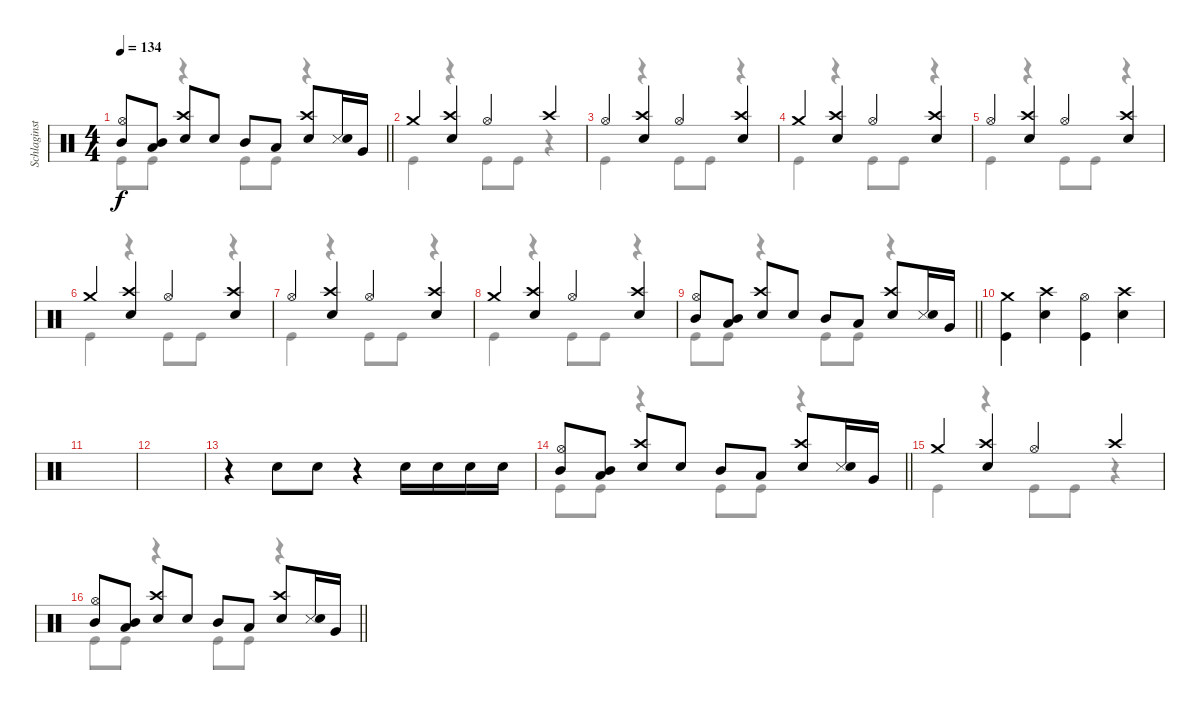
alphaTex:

\track ("Schlaginstrumente - Auswahl" "Schlaginst") {instrument percussion}
\staff {score}
\articulation defaults
\voice
\ts (4 4)
\tempo 134
\clef neutral
\barLineRight lightlight
\ks c
("Mid Tom (hit)" "Hi-Hat (open)").8{dy f} ("Low Tom (hit)" "Mid Tom (hit)").8 ("Snare (hit) 2" "Crash high (hit)").8 "Snare (hit) 2".8 "Mid Tom (hit)".8 "Low Tom (hit)".8 ("Snare (hit) 2" "Crash high (hit)").8 ("Snare (side stick) 3" "Snare (hit) 2").16 "Very Low Tom (hit)".16 |
"Crash medium (hit)".4 ("Crash high (hit)" "Snare (hit) 2").4 "Hi-Hat (open)".4 "Crash high (hit)".4 |
"Hi-Hat (open)".4 ("Crash high (hit)" "Snare (hit) 2").4 "Hi-Hat (open)".4 ("Snare (hit) 2" "Crash high (hit)").4 |
"Crash medium (hit)".4 ("Crash high (hit)" "Snare (hit) 2").4 "Hi-Hat (open)".4 ("Crash high (hit)" "Snare (hit) 2").4 |
"Hi-Hat (open)".4 ("Crash high (hit)" "Snare (hit) 2").4 "Hi-Hat (open)".4 ("Snare (hit) 2" "Crash high (hit)").4 |
"Crash medium (hit)".4 ("Crash high (hit)" "Snare (hit) 2").4 "Hi-Hat (open)".4 ("Crash high (hit)" "Snare (hit) 2").4 |
"Hi-Hat (open)".4 ("Crash high (hit)" "Snare (hit) 2").4 "Hi-Hat (open)".4 ("Snare (hit) 2" "Crash high (hit)").4 |
"Crash medium (hit)".4 ("Crash high (hit)" "Snare (hit) 2").4 "Hi-Hat (open)".4 ("Crash high (hit)" "Snare (hit) 2").4 |
\barLineRight lightlight
("Mid Tom (hit)" "Hi-Hat (open)").8 ("Low Tom (hit)" "Mid Tom (hit)").8 ("Snare (hit) 2" "Crash high (hit)").8 "Snare (hit) 2".8 "Mid Tom (hit)".8 "Low Tom (hit)".8 ("Snare (hit) 2" "Crash high (hit)").8 ("Snare (side stick) 3" "Snare (hit) 2").16 "Very Low Tom (hit)".16 |
("Crash medium (hit)" "Kick (hit)").4 ("Crash high (hit)" "Snare (hit) 2").4 ("Hi-Hat (open)" "Kick (hit)").4 ("Crash high (hit)" "Snare (hit) 2").4 |
|
|
r.4 "Snare (hit) 2".8 "Snare (hit) 2".8 r.4 "Snare (hit) 2".16 "Snare (hit) 2".16 "Snare (hit) 2".16 "Snare (hit) 2".16 |
\barLineRight lightlight
("Mid Tom (hit)" "Hi-Hat (open)").8 ("Low Tom (hit)" "Mid Tom (hit)").8 ("Snare (hit) 2" "Crash high (hit)").8 "Snare (hit) 2".8 "Mid Tom (hit)".8 "Low Tom (hit)".8 ("Snare (hit) 2" "Crash high (hit)").8 ("Snare (side stick) 3" "Snare (hit) 2").16 "Very Low Tom (hit)".16 |
"Crash medium (hit)".4 ("Crash high (hit)" "Snare (hit) 2").4 "Hi-Hat (open)".4 "Crash high (hit)".4 |
\barLineRight lightlight
("Mid Tom (hit)" "Hi-Hat (open)").8 ("Low Tom (hit)" "Mid Tom (hit)").8 ("Snare (hit) 2" "Crash high (hit)").8 "Snare (hit) 2".8 "Mid Tom (hit)".8 "Low Tom (hit)".8 ("Snare (hit) 2" "Crash high (hit)").8 ("Snare (side stick) 3" "Snare (hit) 2").16 "Very Low Tom (hit)".16
\voice
\clef neutral
\ottava regular
\simile none
\barLineRight lightlight
\ks c "Kick (hit)".8{dy f} "Kick (hit)".8
r.4 "Kick (hit)".8 "Kick (hit)".8 r.4 |
"Kick (hit)".4 r.4 "Kick (hit)".8 "Kick (hit)".8 r.4 |
"Kick (hit)".4 r.4 "Kick (hit)".8 "Kick (hit)".8 r.4 |
"Kick (hit)".4 r.4 "Kick (hit)".8 "Kick (hit)".8 r.4 |
"Kick (hit)".4 r.4 "Kick (hit)".8 "Kick (hit)".8 r.4 |
"Kick (hit)".4 r.4 "Kick (hit)".8 "Kick (hit)".8 r.4 |
"Kick (hit)".4 r.4 "Kick (hit)".8 "Kick (hit)".8 r.4 |
"Kick (hit)".4 r.4 "Kick (hit)".8 "Kick (hit)".8 r.4 |
\barLineRight lightlight "Kick (hit)".8 "Kick (hit)".8
r.4 "Kick (hit)".8 "Kick (hit)".8 r.4 |
|
|
|
|
\barLineRight lightlight "Kick (hit)".8 "Kick (hit)".8
r.4 "Kick (hit)".8 "Kick (hit)".8 r.4 |
"Kick (hit)".4 r.4 "Kick (hit)".8 "Kick (hit)".8 r.4 |
\barLineRight lightlight "Kick (hit)".8 "Kick (hit)".8
r.4 "Kick (hit)".8 "Kick (hit)".8 r.4
